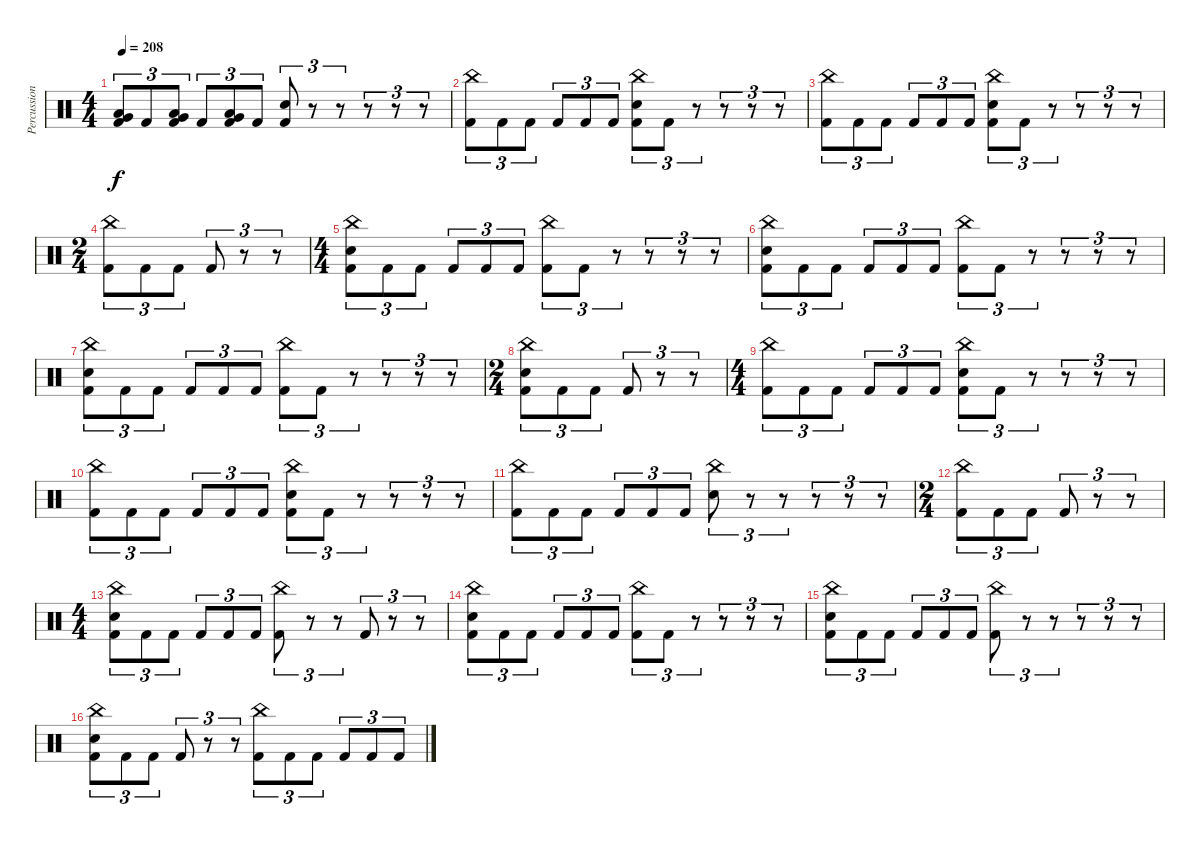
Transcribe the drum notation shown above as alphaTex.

\track ("Percussion" "Percussion") {instrument percussion}
\staff {score}
\articulation defaults
\ts (4 4)
\tempo 208
\clef neutral
\ks c
("Very Low Tom (hit)" "Low Tom (hit)" "Kick (hit) 2").8{tu (3 2) dy f} "Kick (hit) 2".8{tu (3 2)} ("Very Low Tom (hit)" "Low Tom (hit)" "Kick (hit) 2").8{tu (3 2)} "Kick (hit) 2".8{tu (3 2)} ("Very Low Tom (hit)" "Low Tom (hit)" "Kick (hit) 2").8{tu (3 2)} "Kick (hit) 2".8{tu (3 2)} ("Snare (hit) 2" "Kick (hit) 2").8{tu (3 2)} r.8{tu (3 2)} r.8{tu (3 2)} r.8{tu (3 2)} r.8{tu (3 2)} r.8{tu (3 2)} |
("China (hit)" "Kick (hit) 2").8{tu (3 2)} "Kick (hit) 2".8{tu (3 2)} "Kick (hit) 2".8{tu (3 2)} "Kick (hit) 2".8{tu (3 2)} "Kick (hit) 2".8{tu (3 2)} "Kick (hit) 2".8{tu (3 2)} ("China (hit)" "Snare (hit) 2" "Kick (hit) 2").8{tu (3 2)} "Kick (hit) 2".8{tu (3 2)} r.8{tu (3 2)} r.8{tu (3 2)} r.8{tu (3 2)} r.8{tu (3 2)} |
("China (hit)" "Kick (hit) 2").8{tu (3 2)} "Kick (hit) 2".8{tu (3 2)} "Kick (hit) 2".8{tu (3 2)} "Kick (hit) 2".8{tu (3 2)} "Kick (hit) 2".8{tu (3 2)} "Kick (hit) 2".8{tu (3 2)} ("China (hit)" "Snare (hit) 2" "Kick (hit) 2").8{tu (3 2)} "Kick (hit) 2".8{tu (3 2)} r.8{tu (3 2)} r.8{tu (3 2)} r.8{tu (3 2)} r.8{tu (3 2)} |
\ts (2 4)
("China (hit)" "Kick (hit) 2").8{tu (3 2)} "Kick (hit) 2".8{tu (3 2)} "Kick (hit) 2".8{tu (3 2)} "Kick (hit) 2".8{tu (3 2)} r.8{tu (3 2)} r.8{tu (3 2)} |
\ts (4 4)
("China (hit)" "Snare (hit) 2" "Kick (hit) 2").8{tu (3 2)} "Kick (hit) 2".8{tu (3 2)} "Kick (hit) 2".8{tu (3 2)} "Kick (hit) 2".8{tu (3 2)} "Kick (hit) 2".8{tu (3 2)} "Kick (hit) 2".8{tu (3 2)} ("China (hit)" "Kick (hit) 2").8{tu (3 2)} "Kick (hit) 2".8{tu (3 2)} r.8{tu (3 2)} r.8{tu (3 2)} r.8{tu (3 2)} r.8{tu (3 2)} |
("China (hit)" "Snare (hit) 2" "Kick (hit) 2").8{tu (3 2)} "Kick (hit) 2".8{tu (3 2)} "Kick (hit) 2".8{tu (3 2)} "Kick (hit) 2".8{tu (3 2)} "Kick (hit) 2".8{tu (3 2)} "Kick (hit) 2".8{tu (3 2)} ("China (hit)" "Kick (hit) 2").8{tu (3 2)} "Kick (hit) 2".8{tu (3 2)} r.8{tu (3 2)} r.8{tu (3 2)} r.8{tu (3 2)} r.8{tu (3 2)} |
("China (hit)" "Snare (hit) 2" "Kick (hit) 2").8{tu (3 2)} "Kick (hit) 2".8{tu (3 2)} "Kick (hit) 2".8{tu (3 2)} "Kick (hit) 2".8{tu (3 2)} "Kick (hit) 2".8{tu (3 2)} "Kick (hit) 2".8{tu (3 2)} ("China (hit)" "Kick (hit) 2").8{tu (3 2)} "Kick (hit) 2".8{tu (3 2)} r.8{tu (3 2)} r.8{tu (3 2)} r.8{tu (3 2)} r.8{tu (3 2)} |
\ts (2 4)
("China (hit)" "Snare (hit) 2" "Kick (hit) 2").8{tu (3 2)} "Kick (hit) 2".8{tu (3 2)} "Kick (hit) 2".8{tu (3 2)} "Kick (hit) 2".8{tu (3 2)} r.8{tu (3 2)} r.8{tu (3 2)} |
\ts (4 4)
("China (hit)" "Kick (hit) 2").8{tu (3 2)} "Kick (hit) 2".8{tu (3 2)} "Kick (hit) 2".8{tu (3 2)} "Kick (hit) 2".8{tu (3 2)} "Kick (hit) 2".8{tu (3 2)} "Kick (hit) 2".8{tu (3 2)} ("China (hit)" "Snare (hit) 2" "Kick (hit) 2").8{tu (3 2)} "Kick (hit) 2".8{tu (3 2)} r.8{tu (3 2)} r.8{tu (3 2)} r.8{tu (3 2)} r.8{tu (3 2)} |
("China (hit)" "Kick (hit) 2").8{tu (3 2)} "Kick (hit) 2".8{tu (3 2)} "Kick (hit) 2".8{tu (3 2)} "Kick (hit) 2".8{tu (3 2)} "Kick (hit) 2".8{tu (3 2)} "Kick (hit) 2".8{tu (3 2)} ("China (hit)" "Snare (hit) 2" "Kick (hit) 2").8{tu (3 2)} "Kick (hit) 2".8{tu (3 2)} r.8{tu (3 2)} r.8{tu (3 2)} r.8{tu (3 2)} r.8{tu (3 2)} |
("China (hit)" "Kick (hit) 2").8{tu (3 2)} "Kick (hit) 2".8{tu (3 2)} "Kick (hit) 2".8{tu (3 2)} "Kick (hit) 2".8{tu (3 2)} "Kick (hit) 2".8{tu (3 2)} "Kick (hit) 2".8{tu (3 2)} ("China (hit)" "Snare (hit) 2").8{tu (3 2)} r.8{tu (3 2)} r.8{tu (3 2)} r.8{tu (3 2)} r.8{tu (3 2)} r.8{tu (3 2)} |
\ts (2 4)
("China (hit)" "Kick (hit) 2").8{tu (3 2)} "Kick (hit) 2".8{tu (3 2)} "Kick (hit) 2".8{tu (3 2)} "Kick (hit) 2".8{tu (3 2)} r.8{tu (3 2)} r.8{tu (3 2)} |
\ts (4 4)
("China (hit)" "Snare (hit) 2" "Kick (hit) 2").8{tu (3 2)} "Kick (hit) 2".8{tu (3 2)} "Kick (hit) 2".8{tu (3 2)} "Kick (hit) 2".8{tu (3 2)} "Kick (hit) 2".8{tu (3 2)} "Kick (hit) 2".8{tu (3 2)} ("China (hit)" "Kick (hit) 2").8{tu (3 2)} r.8{tu (3 2)} r.8{tu (3 2)} "Kick (hit) 2".8{tu (3 2)} r.8{tu (3 2)} r.8{tu (3 2)} |
("China (hit)" "Snare (hit) 2" "Kick (hit) 2").8{tu (3 2)} "Kick (hit) 2".8{tu (3 2)} "Kick (hit) 2".8{tu (3 2)} "Kick (hit) 2".8{tu (3 2)} "Kick (hit) 2".8{tu (3 2)} "Kick (hit) 2".8{tu (3 2)} ("China (hit)" "Kick (hit) 2").8{tu (3 2)} "Kick (hit) 2".8{tu (3 2)} r.8{tu (3 2)} r.8{tu (3 2)} r.8{tu (3 2)} r.8{tu (3 2)} |
("China (hit)" "Snare (hit) 2" "Kick (hit) 2").8{tu (3 2)} "Kick (hit) 2".8{tu (3 2)} "Kick (hit) 2".8{tu (3 2)} "Kick (hit) 2".8{tu (3 2)} "Kick (hit) 2".8{tu (3 2)} "Kick (hit) 2".8{tu (3 2)} ("China (hit)" "Kick (hit) 2").8{tu (3 2)} r.8{tu (3 2)} r.8{tu (3 2)} r.8{tu (3 2)} r.8{tu (3 2)} r.8{tu (3 2)} |
("China (hit)" "Snare (hit) 2" "Kick (hit) 2").8{tu (3 2)} "Kick (hit) 2".8{tu (3 2)} "Kick (hit) 2".8{tu (3 2)} "Kick (hit) 2".8{tu (3 2)} r.8{tu (3 2)} r.8{tu (3 2)} ("China (hit)" "Kick (hit) 2").8{tu (3 2)} "Kick (hit) 2".8{tu (3 2)} "Kick (hit) 2".8{tu (3 2)} "Kick (hit) 2".8{tu (3 2)} "Kick (hit) 2".8{tu (3 2)} "Kick (hit) 2".8{tu (3 2)}
